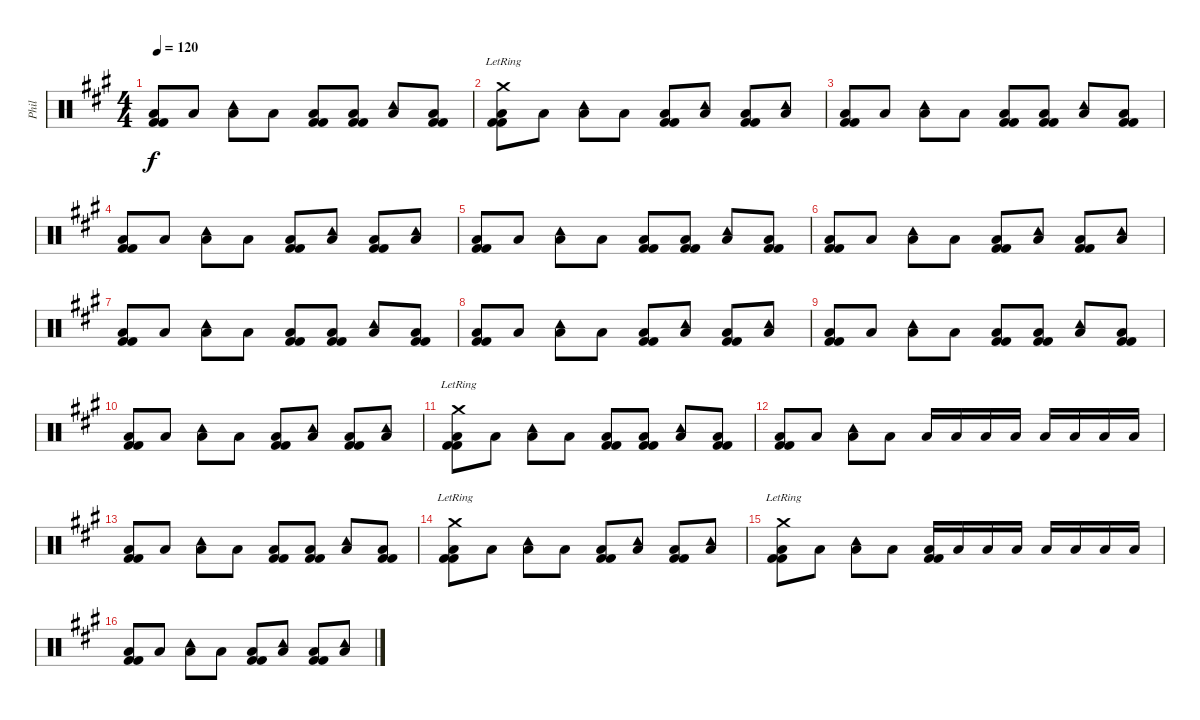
\track ("Phil" "Phil") {instrument percussion}
\staff {score}
\articulation defaults
\ts (4 4)
\tempo 120
\clef neutral
\ks a
("Kick (hit) 2" "Low Floor Tom (hit)" "Kick (hit) 2").8{dy f} "Low Floor Tom (hit)".8 ("Low Floor Tom (hit)" "Tambourine (hit)").8 "Low Floor Tom (hit)".8 ("Kick (hit) 2" "Low Floor Tom (hit)" "Kick (hit) 2").8 ("Kick (hit) 2" "Low Floor Tom (hit)" "Kick (hit) 2").8 ("Low Floor Tom (hit)" "Tambourine (hit)").8 ("Kick (hit) 2" "Low Floor Tom (hit)" "Kick (hit) 2").8 |
("Kick (hit) 2" "Low Floor Tom (hit)" "Kick (hit) 2" "Crash medium (hit)"{lr}).8 "Low Floor Tom (hit)".8 ("Low Floor Tom (hit)" "Tambourine (hit)").8 "Low Floor Tom (hit)".8 ("Kick (hit) 2" "Low Floor Tom (hit)" "Kick (hit) 2").8 ("Low Floor Tom (hit)" "Tambourine (hit)").8 ("Kick (hit) 2" "Low Floor Tom (hit)" "Kick (hit) 2").8 ("Low Floor Tom (hit)" "Tambourine (hit)").8 |
("Kick (hit) 2" "Low Floor Tom (hit)" "Kick (hit) 2").8 "Low Floor Tom (hit)".8 ("Low Floor Tom (hit)" "Tambourine (hit)").8 "Low Floor Tom (hit)".8 ("Kick (hit) 2" "Low Floor Tom (hit)" "Kick (hit) 2").8 ("Kick (hit) 2" "Low Floor Tom (hit)" "Kick (hit) 2").8 ("Low Floor Tom (hit)" "Tambourine (hit)").8 ("Kick (hit) 2" "Low Floor Tom (hit)" "Kick (hit) 2").8 |
("Kick (hit) 2" "Low Floor Tom (hit)" "Kick (hit) 2").8 "Low Floor Tom (hit)".8 ("Low Floor Tom (hit)" "Tambourine (hit)").8 "Low Floor Tom (hit)".8 ("Kick (hit) 2" "Low Floor Tom (hit)" "Kick (hit) 2").8 ("Low Floor Tom (hit)" "Tambourine (hit)").8 ("Kick (hit) 2" "Low Floor Tom (hit)" "Kick (hit) 2").8 ("Low Floor Tom (hit)" "Tambourine (hit)").8 |
("Kick (hit) 2" "Low Floor Tom (hit)" "Kick (hit) 2").8 "Low Floor Tom (hit)".8 ("Low Floor Tom (hit)" "Tambourine (hit)").8 "Low Floor Tom (hit)".8 ("Kick (hit) 2" "Low Floor Tom (hit)" "Kick (hit) 2").8 ("Kick (hit) 2" "Low Floor Tom (hit)" "Kick (hit) 2").8 ("Low Floor Tom (hit)" "Tambourine (hit)").8 ("Kick (hit) 2" "Low Floor Tom (hit)" "Kick (hit) 2").8 |
("Kick (hit) 2" "Low Floor Tom (hit)" "Kick (hit) 2").8 "Low Floor Tom (hit)".8 ("Low Floor Tom (hit)" "Tambourine (hit)").8 "Low Floor Tom (hit)".8 ("Kick (hit) 2" "Low Floor Tom (hit)" "Kick (hit) 2").8 ("Low Floor Tom (hit)" "Tambourine (hit)").8 ("Kick (hit) 2" "Low Floor Tom (hit)" "Kick (hit) 2").8 ("Low Floor Tom (hit)" "Tambourine (hit)").8 |
("Kick (hit) 2" "Low Floor Tom (hit)" "Kick (hit) 2").8 "Low Floor Tom (hit)".8 ("Low Floor Tom (hit)" "Tambourine (hit)").8 "Low Floor Tom (hit)".8 ("Kick (hit) 2" "Low Floor Tom (hit)" "Kick (hit) 2").8 ("Kick (hit) 2" "Low Floor Tom (hit)" "Kick (hit) 2").8 ("Low Floor Tom (hit)" "Tambourine (hit)").8 ("Kick (hit) 2" "Low Floor Tom (hit)" "Kick (hit) 2").8 |
("Kick (hit) 2" "Low Floor Tom (hit)" "Kick (hit) 2").8 "Low Floor Tom (hit)".8 ("Low Floor Tom (hit)" "Tambourine (hit)").8 "Low Floor Tom (hit)".8 ("Kick (hit) 2" "Low Floor Tom (hit)" "Kick (hit) 2").8 ("Low Floor Tom (hit)" "Tambourine (hit)").8 ("Kick (hit) 2" "Low Floor Tom (hit)" "Kick (hit) 2").8 ("Low Floor Tom (hit)" "Tambourine (hit)").8 |
("Kick (hit) 2" "Low Floor Tom (hit)" "Kick (hit) 2").8 "Low Floor Tom (hit)".8 ("Low Floor Tom (hit)" "Tambourine (hit)").8 "Low Floor Tom (hit)".8 ("Kick (hit) 2" "Low Floor Tom (hit)" "Kick (hit) 2").8 ("Kick (hit) 2" "Low Floor Tom (hit)" "Kick (hit) 2").8 ("Low Floor Tom (hit)" "Tambourine (hit)").8 ("Kick (hit) 2" "Low Floor Tom (hit)" "Kick (hit) 2").8 |
("Kick (hit) 2" "Low Floor Tom (hit)" "Kick (hit) 2").8 "Low Floor Tom (hit)".8 ("Low Floor Tom (hit)" "Tambourine (hit)").8 "Low Floor Tom (hit)".8 ("Kick (hit) 2" "Low Floor Tom (hit)" "Kick (hit) 2").8 ("Low Floor Tom (hit)" "Tambourine (hit)").8 ("Kick (hit) 2" "Low Floor Tom (hit)" "Kick (hit) 2").8 ("Low Floor Tom (hit)" "Tambourine (hit)").8 |
("Kick (hit) 2" "Low Floor Tom (hit)" "Kick (hit) 2" "Crash medium (hit)"{lr}).8 "Low Floor Tom (hit)".8 ("Low Floor Tom (hit)" "Tambourine (hit)").8 "Low Floor Tom (hit)".8 ("Kick (hit) 2" "Low Floor Tom (hit)" "Kick (hit) 2").8 ("Kick (hit) 2" "Low Floor Tom (hit)" "Kick (hit) 2").8 ("Low Floor Tom (hit)" "Tambourine (hit)").8 ("Kick (hit) 2" "Low Floor Tom (hit)" "Kick (hit) 2").8 |
("Kick (hit) 2" "Low Floor Tom (hit)" "Kick (hit) 2").8 "Low Floor Tom (hit)".8 ("Low Floor Tom (hit)" "Tambourine (hit)").8 "Low Floor Tom (hit)".8 "Low Floor Tom (hit)".16 "Low Tom (hit)".16 "Low Tom (hit)".16 "Low Floor Tom (hit)".16 "Low Floor Tom (hit)".16 "Low Tom (hit)".16 "Low Tom (hit)".16 "Low Floor Tom (hit)".16 |
("Kick (hit) 2" "Low Floor Tom (hit)" "Kick (hit) 2").8 "Low Floor Tom (hit)".8 ("Low Floor Tom (hit)" "Tambourine (hit)").8 "Low Floor Tom (hit)".8 ("Kick (hit) 2" "Low Floor Tom (hit)" "Kick (hit) 2").8 ("Kick (hit) 2" "Low Floor Tom (hit)" "Kick (hit) 2").8 ("Low Floor Tom (hit)" "Tambourine (hit)").8 ("Kick (hit) 2" "Low Floor Tom (hit)" "Kick (hit) 2").8 |
("Kick (hit) 2" "Low Floor Tom (hit)" "Kick (hit) 2" "Crash medium (hit)"{lr}).8 "Low Floor Tom (hit)".8 ("Low Floor Tom (hit)" "Tambourine (hit)").8 "Low Floor Tom (hit)".8 ("Kick (hit) 2" "Low Floor Tom (hit)" "Kick (hit) 2").8 ("Low Floor Tom (hit)" "Tambourine (hit)").8 ("Kick (hit) 2" "Low Floor Tom (hit)" "Kick (hit) 2").8 ("Low Floor Tom (hit)" "Tambourine (hit)").8 |
("Kick (hit) 2" "Low Floor Tom (hit)" "Kick (hit) 2" "Crash medium (hit)"{lr}).8 "Low Floor Tom (hit)".8 ("Low Floor Tom (hit)" "Tambourine (hit)").8 "Low Floor Tom (hit)".8 ("Kick (hit) 2" "Low Floor Tom (hit)" "Kick (hit) 2").16 "Low Tom (hit)".16 "Low Tom (hit)".16 "Low Floor Tom (hit)".16 "Low Floor Tom (hit)".16 "Low Tom (hit)".16 "Low Tom (hit)".16 "Low Floor Tom (hit)".16 |
("Kick (hit) 2" "Low Floor Tom (hit)" "Kick (hit) 2").8 "Low Floor Tom (hit)".8 ("Low Floor Tom (hit)" "Tambourine (hit)").8 "Low Floor Tom (hit)".8 ("Kick (hit) 2" "Low Floor Tom (hit)" "Kick (hit) 2").8 ("Low Floor Tom (hit)" "Tambourine (hit)").8 ("Kick (hit) 2" "Low Floor Tom (hit)" "Kick (hit) 2").8 ("Low Floor Tom (hit)" "Tambourine (hit)").8
